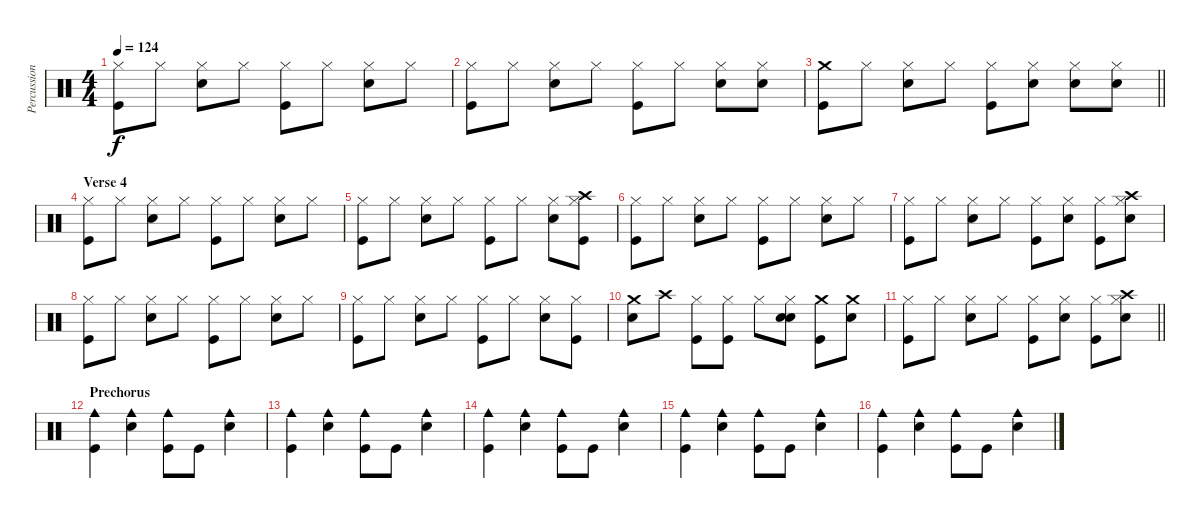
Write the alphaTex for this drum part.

\track ("Percussion" "Percussion") {solo instrument percussion}
\staff {score}
\articulation defaults
\ts (4 4)
\tempo 124
\clef neutral
\ks c
("Hi-Hat (closed)" "Kick (hit)").8{dy f} "Hi-Hat (closed)".8 ("Hi-Hat (closed)" "Electric Snare (hit)").8 "Hi-Hat (closed)".8 ("Hi-Hat (closed)" "Kick (hit)").8 "Hi-Hat (closed)".8 ("Hi-Hat (closed)" "Electric Snare (hit)").8 "Hi-Hat (closed)".8 |
("Hi-Hat (closed)" "Kick (hit)").8 "Hi-Hat (closed)".8 ("Hi-Hat (closed)" "Electric Snare (hit)").8 "Hi-Hat (closed)".8 ("Hi-Hat (closed)" "Kick (hit)").8 "Hi-Hat (closed)".8 ("Hi-Hat (closed)" "Electric Snare (hit)").8 ("Hi-Hat (closed)" "Electric Snare (hit)").8 |
\barLineRight lightlight
("Crash medium (hit)" "Kick (hit)").8 "Hi-Hat (closed)".8 ("Hi-Hat (closed)" "Electric Snare (hit)").8 "Hi-Hat (closed)".8 ("Hi-Hat (closed)" "Kick (hit)").8 ("Hi-Hat (closed)" "Electric Snare (hit)").8 ("Hi-Hat (closed)" "Electric Snare (hit)").8 ("Hi-Hat (closed)" "Electric Snare (hit)").8 |
\section ("" "Verse 4")
("Hi-Hat (closed)" "Kick (hit)").8 "Hi-Hat (closed)".8 ("Hi-Hat (closed)" "Electric Snare (hit)").8 "Hi-Hat (closed)".8 ("Hi-Hat (closed)" "Kick (hit)").8 "Hi-Hat (closed)".8 ("Hi-Hat (closed)" "Electric Snare (hit)").8 "Hi-Hat (closed)".8 |
("Hi-Hat (closed)" "Kick (hit)").8 "Hi-Hat (closed)".8 ("Hi-Hat (closed)" "Electric Snare (hit)").8 "Hi-Hat (closed)".8 ("Hi-Hat (closed)" "Kick (hit)").8 "Hi-Hat (closed)".8 ("Hi-Hat (closed)" "Electric Snare (hit)").8 ("Hi-Hat (closed)" "Crash high (hit)" "Kick (hit)").8 |
("Hi-Hat (closed)" "Kick (hit)").8 "Hi-Hat (closed)".8 ("Hi-Hat (closed)" "Electric Snare (hit)").8 "Hi-Hat (closed)".8 ("Hi-Hat (closed)" "Kick (hit)").8 "Hi-Hat (closed)".8 ("Hi-Hat (closed)" "Electric Snare (hit)").8 "Hi-Hat (closed)".8 |
("Hi-Hat (closed)" "Kick (hit)").8 "Hi-Hat (closed)".8 ("Hi-Hat (closed)" "Electric Snare (hit)").8 "Hi-Hat (closed)".8 ("Hi-Hat (closed)" "Kick (hit)").8 ("Hi-Hat (closed)" "Electric Snare (hit)").8 ("Hi-Hat (closed)" "Kick (hit)").8 ("Hi-Hat (closed)" "Crash high (hit)" "Electric Snare (hit)").8 |
("Hi-Hat (closed)" "Kick (hit)").8 "Hi-Hat (closed)".8 ("Hi-Hat (closed)" "Electric Snare (hit)").8 "Hi-Hat (closed)".8 ("Hi-Hat (closed)" "Kick (hit)").8 "Hi-Hat (closed)".8 ("Hi-Hat (closed)" "Electric Snare (hit)").8 "Hi-Hat (closed)".8 |
("Hi-Hat (closed)" "Kick (hit)").8 "Hi-Hat (closed)".8 ("Hi-Hat (closed)" "Electric Snare (hit)").8 "Hi-Hat (closed)".8 ("Hi-Hat (closed)" "Kick (hit)").8 "Hi-Hat (closed)".8 ("Hi-Hat (closed)" "Electric Snare (hit)").8 ("Hi-Hat (closed)" "Kick (hit)").8 |
("Crash medium (hit)" "Electric Snare (hit)").8 "Crash high (hit)".8 ("Hi-Hat (closed)" "Kick (hit)").8 ("Hi-Hat (closed)" "Kick (hit)").8 "Hi-Hat (closed)".8 ("Hi-Hat (closed)" "Electric Snare (hit)" "Electric Snare (hit)").8 ("Crash medium (hit)" "Kick (hit)").8 ("Crash medium (hit)" "Electric Snare (hit)").8 |
\barLineRight lightlight
("Hi-Hat (closed)" "Kick (hit)").8 "Hi-Hat (closed)".8 ("Hi-Hat (closed)" "Electric Snare (hit)").8 "Hi-Hat (closed)".8 ("Hi-Hat (closed)" "Kick (hit)").8 ("Hi-Hat (closed)" "Electric Snare (hit)").8 ("Hi-Hat (closed)" "Kick (hit)").8 ("Hi-Hat (closed)" "Crash high (hit)" "Electric Snare (hit)").8 |
\section ("" "Prechorus")
("Cowbell medium (hit)" "Kick (hit)").4 ("Cowbell medium (hit)" "Electric Snare (hit)").4 ("Cowbell medium (hit)" "Kick (hit)").8 "Kick (hit)".8 ("Cowbell medium (hit)" "Electric Snare (hit)").4 |
("Cowbell medium (hit)" "Kick (hit)").4 ("Cowbell medium (hit)" "Electric Snare (hit)").4 ("Cowbell medium (hit)" "Kick (hit)").8 "Kick (hit)".8 ("Cowbell medium (hit)" "Electric Snare (hit)").4 |
("Cowbell medium (hit)" "Kick (hit)").4 ("Cowbell medium (hit)" "Electric Snare (hit)").4 ("Cowbell medium (hit)" "Kick (hit)").8 "Kick (hit)".8 ("Cowbell medium (hit)" "Electric Snare (hit)").4 |
("Cowbell medium (hit)" "Kick (hit)").4 ("Cowbell medium (hit)" "Electric Snare (hit)").4 ("Cowbell medium (hit)" "Kick (hit)").8 "Kick (hit)".8 ("Cowbell medium (hit)" "Electric Snare (hit)").4 |
("Cowbell medium (hit)" "Kick (hit)").4 ("Cowbell medium (hit)" "Electric Snare (hit)").4 ("Cowbell medium (hit)" "Kick (hit)").8 "Kick (hit)".8 ("Cowbell medium (hit)" "Electric Snare (hit)").4
